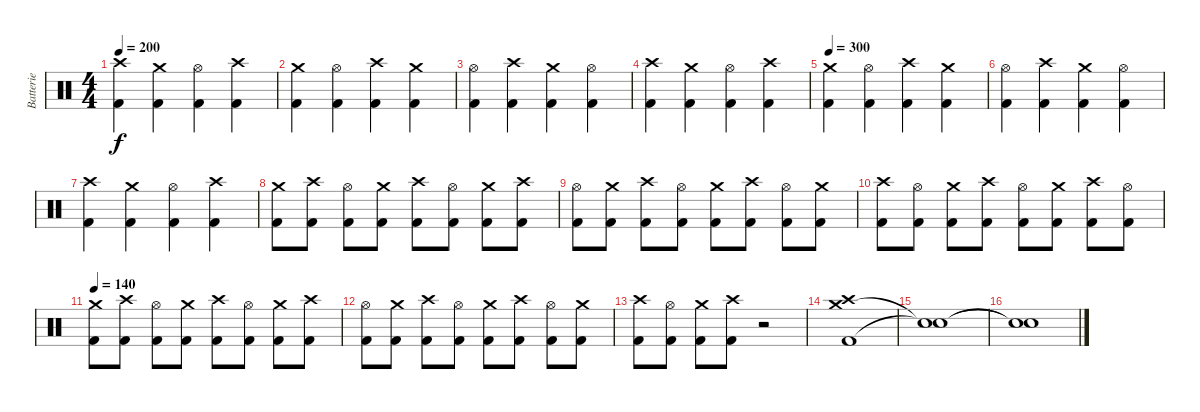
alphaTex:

\track ("Batterie" "Batterie") {instrument percussion}
\staff {score}
\articulation defaults
\ts (4 4)
\tempo 200
\clef neutral
\ks c
("Kick (hit) 2" "Crash high (hit)").4{dy f} ("Kick (hit) 2" "Crash medium (hit)").4 ("Kick (hit) 2" "Hi-Hat (open)").4 ("Kick (hit) 2" "Crash high (hit)").4 |
("Kick (hit) 2" "Crash medium (hit)").4 ("Kick (hit) 2" "Hi-Hat (open)").4 ("Kick (hit) 2" "Crash high (hit)").4 ("Kick (hit) 2" "Crash medium (hit)").4 |
("Kick (hit) 2" "Hi-Hat (open)").4 ("Kick (hit) 2" "Crash high (hit)").4 ("Kick (hit) 2" "Crash medium (hit)").4 ("Kick (hit) 2" "Hi-Hat (open)").4 |
("Kick (hit) 2" "Crash high (hit)").4 ("Kick (hit) 2" "Crash medium (hit)").4 ("Kick (hit) 2" "Hi-Hat (open)").4 ("Kick (hit) 2" "Crash high (hit)").4 |
\tempo 300
("Kick (hit) 2" "Crash medium (hit)").4 ("Kick (hit) 2" "Hi-Hat (open)").4 ("Kick (hit) 2" "Crash high (hit)").4 ("Kick (hit) 2" "Crash medium (hit)").4 |
("Kick (hit) 2" "Hi-Hat (open)").4 ("Kick (hit) 2" "Crash high (hit)").4 ("Kick (hit) 2" "Crash medium (hit)").4 ("Kick (hit) 2" "Hi-Hat (open)").4 |
("Kick (hit) 2" "Crash high (hit)").4 ("Kick (hit) 2" "Crash medium (hit)").4 ("Kick (hit) 2" "Hi-Hat (open)").4 ("Kick (hit) 2" "Crash high (hit)").4 |
("Kick (hit) 2" "Crash medium (hit)").8 ("Kick (hit) 2" "Crash high (hit)").8 ("Kick (hit) 2" "Hi-Hat (open)").8 ("Kick (hit) 2" "Crash medium (hit)").8 ("Kick (hit) 2" "Crash high (hit)").8 ("Kick (hit) 2" "Hi-Hat (open)").8 ("Kick (hit) 2" "Crash medium (hit)").8 ("Kick (hit) 2" "Crash high (hit)").8 |
("Kick (hit) 2" "Hi-Hat (open)").8 ("Kick (hit) 2" "Crash medium (hit)").8 ("Kick (hit) 2" "Crash high (hit)").8 ("Kick (hit) 2" "Hi-Hat (open)").8 ("Kick (hit) 2" "Crash medium (hit)").8 ("Kick (hit) 2" "Crash high (hit)").8 ("Kick (hit) 2" "Hi-Hat (open)").8 ("Kick (hit) 2" "Crash medium (hit)").8 |
("Kick (hit) 2" "Crash high (hit)").8 ("Kick (hit) 2" "Hi-Hat (open)").8 ("Kick (hit) 2" "Crash medium (hit)").8 ("Kick (hit) 2" "Crash high (hit)").8 ("Kick (hit) 2" "Hi-Hat (open)").8 ("Kick (hit) 2" "Crash medium (hit)").8 ("Kick (hit) 2" "Crash high (hit)").8 ("Kick (hit) 2" "Hi-Hat (open)").8 |
\tempo 140
("Kick (hit) 2" "Crash medium (hit)").8 ("Kick (hit) 2" "Crash high (hit)").8 ("Kick (hit) 2" "Hi-Hat (open)").8 ("Kick (hit) 2" "Crash medium (hit)").8 ("Kick (hit) 2" "Crash high (hit)").8 ("Kick (hit) 2" "Hi-Hat (open)").8 ("Kick (hit) 2" "Crash medium (hit)").8 ("Kick (hit) 2" "Crash high (hit)").8 |
("Kick (hit) 2" "Hi-Hat (open)").8 ("Kick (hit) 2" "Crash medium (hit)").8 ("Kick (hit) 2" "Crash high (hit)").8 ("Kick (hit) 2" "Hi-Hat (open)").8 ("Kick (hit) 2" "Crash medium (hit)").8 ("Kick (hit) 2" "Crash high (hit)").8 ("Kick (hit) 2" "Hi-Hat (open)").8 ("Kick (hit) 2" "Crash medium (hit)").8 |
("Kick (hit) 2" "Crash high (hit)").8 ("Kick (hit) 2" "Hi-Hat (open)").8 ("Kick (hit) 2" "Crash medium (hit)").8 ("Kick (hit) 2" "Crash high (hit)").8 r.2 |
("Kick (hit) 2" "Crash medium (hit)" "Crash high (hit)").1 |
("Snare (hit)"{t} "Snare (hit)"{t}).1 |
("Snare (hit)"{t} "Snare (hit)"{t}).1
